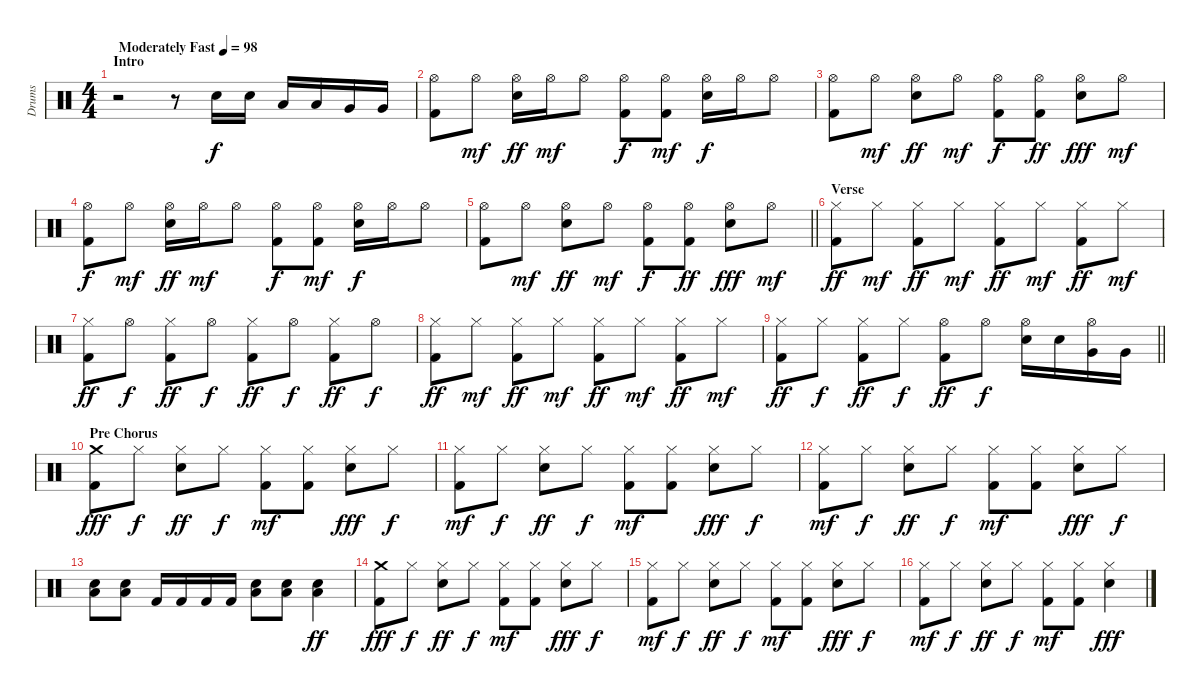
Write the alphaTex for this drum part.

\track ("Drums" "Drums") {instrument percussion}
\staff {score}
\articulation defaults
\ts (4 4)
\section ("" "Intro")
\tempo (98 "Moderately Fast")
\clef neutral
\ks c
r.2{dy f} r.8 "Electric Snare (hit)".16 "Electric Snare (hit)".16 "Low Tom (hit)".16 "Low Tom (hit)".16 "Very Low Tom (hit)".16 "Very Low Tom (hit)".16 |
("Hi-Hat (open)" "Kick (hit) 2").8 "Hi-Hat (open)".8{dy mf} ("Hi-Hat (open)" "Electric Snare (hit)").16{dy ff} "Hi-Hat (open)".16{dy mf} "Hi-Hat (open)".8 ("Hi-Hat (open)" "Kick (hit) 2").8{dy f} ("Hi-Hat (open)" "Kick (hit) 2").8{dy mf} ("Hi-Hat (open)" "Electric Snare (hit)").16{dy f} "Hi-Hat (open)".16 "Hi-Hat (open)".8 |
("Hi-Hat (open)" "Kick (hit) 2").8 "Hi-Hat (open)".8{dy mf} ("Hi-Hat (open)" "Electric Snare (hit)").8{dy ff} "Hi-Hat (open)".8{dy mf} ("Hi-Hat (open)" "Kick (hit) 2").8{dy f} ("Hi-Hat (open)" "Kick (hit) 2").8{dy ff} ("Hi-Hat (open)" "Electric Snare (hit)").8{dy fff} "Hi-Hat (open)".8{dy mf} |
("Hi-Hat (open)" "Kick (hit) 2").8{dy f} "Hi-Hat (open)".8{dy mf} ("Hi-Hat (open)" "Electric Snare (hit)").16{dy ff} "Hi-Hat (open)".16{dy mf} "Hi-Hat (open)".8 ("Hi-Hat (open)" "Kick (hit) 2").8{dy f} ("Hi-Hat (open)" "Kick (hit) 2").8{dy mf} ("Hi-Hat (open)" "Electric Snare (hit)").16{dy f} "Hi-Hat (open)".16 "Hi-Hat (open)".8 |
\barLineRight lightlight
("Hi-Hat (open)" "Kick (hit) 2").8 "Hi-Hat (open)".8{dy mf} ("Hi-Hat (open)" "Electric Snare (hit)").8{dy ff} "Hi-Hat (open)".8{dy mf} ("Hi-Hat (open)" "Kick (hit) 2").8{dy f} ("Hi-Hat (open)" "Kick (hit) 2").8{dy ff} ("Hi-Hat (open)" "Electric Snare (hit)").8{dy fff} "Hi-Hat (open)".8{dy mf} |
\section ("" "Verse")
("Hi-Hat (closed)" "Kick (hit) 2").8{dy ff} "Hi-Hat (closed)".8{dy mf} ("Hi-Hat (closed)" "Kick (hit) 2").8{dy ff} "Hi-Hat (closed)".8{dy mf} ("Hi-Hat (closed)" "Kick (hit) 2").8{dy ff} "Hi-Hat (closed)".8{dy mf} ("Hi-Hat (closed)" "Kick (hit) 2").8{dy ff} "Hi-Hat (closed)".8{dy mf} |
("Hi-Hat (closed)" "Kick (hit) 2").8{dy ff} "Hi-Hat (open)".8{dy f} ("Hi-Hat (closed)" "Kick (hit) 2").8{dy ff} "Hi-Hat (open)".8{dy f} ("Hi-Hat (closed)" "Kick (hit) 2").8{dy ff} "Hi-Hat (open)".8{dy f} ("Hi-Hat (closed)" "Kick (hit) 2").8{dy ff} "Hi-Hat (open)".8{dy f} |
("Hi-Hat (closed)" "Kick (hit) 2").8{dy ff} "Hi-Hat (closed)".8{dy mf} ("Hi-Hat (closed)" "Kick (hit) 2").8{dy ff} "Hi-Hat (closed)".8{dy mf} ("Hi-Hat (closed)" "Kick (hit) 2").8{dy ff} "Hi-Hat (closed)".8{dy mf} ("Hi-Hat (closed)" "Kick (hit) 2").8{dy ff} "Hi-Hat (closed)".8{dy mf} |
\barLineRight lightlight
("Hi-Hat (closed)" "Kick (hit) 2").8{dy ff} "Hi-Hat (closed)".8{dy f} ("Hi-Hat (closed)" "Kick (hit) 2").8{dy ff} "Hi-Hat (closed)".8{dy f} ("Hi-Hat (open)" "Kick (hit) 2").8{dy ff} "Hi-Hat (open)".8{dy f} ("Hi-Hat (open)" "Electric Snare (hit)").16 "Electric Snare (hit)".16 ("Hi-Hat (open)" "Very Low Tom (hit)").16 "Very Low Tom (hit)".16 |
\section ("" "Pre Chorus")
("Crash medium (hit)" "Kick (hit) 2").8{dy fff} "Hi-Hat (closed)".8{dy f} ("Hi-Hat (closed)" "Electric Snare (hit)").8{dy ff} "Hi-Hat (closed)".8{dy f} ("Hi-Hat (closed)" "Kick (hit) 2").8{dy mf} ("Hi-Hat (closed)" "Kick (hit) 2").8 ("Hi-Hat (closed)" "Electric Snare (hit)").8{dy fff} "Hi-Hat (closed)".8{dy f} |
("Hi-Hat (closed)" "Kick (hit) 2").8{dy mf} "Hi-Hat (closed)".8{dy f} ("Hi-Hat (closed)" "Electric Snare (hit)").8{dy ff} "Hi-Hat (closed)".8{dy f} ("Hi-Hat (closed)" "Kick (hit) 2").8{dy mf} ("Hi-Hat (closed)" "Kick (hit) 2").8 ("Hi-Hat (closed)" "Electric Snare (hit)").8{dy fff} "Hi-Hat (closed)".8{dy f} |
("Hi-Hat (closed)" "Kick (hit) 2").8{dy mf} "Hi-Hat (closed)".8{dy f} ("Hi-Hat (closed)" "Electric Snare (hit)").8{dy ff} "Hi-Hat (closed)".8{dy f} ("Hi-Hat (closed)" "Kick (hit) 2").8{dy mf} ("Hi-Hat (closed)" "Kick (hit) 2").8 ("Hi-Hat (closed)" "Electric Snare (hit)").8{dy fff} "Hi-Hat (closed)".8{dy f} |
("Electric Snare (hit)" "Low Floor Tom (hit)").8 ("Electric Snare (hit)" "Low Floor Tom (hit)").8 "Kick (hit) 2".16 "Kick (hit) 2".16 "Kick (hit) 2".16 "Kick (hit) 2".16 ("Electric Snare (hit)" "Low Floor Tom (hit)").8 ("Electric Snare (hit)" "Low Floor Tom (hit)").8 ("Electric Snare (hit)" "Low Floor Tom (hit)").4{dy ff} |
("Crash medium (hit)" "Kick (hit) 2").8{dy fff} "Hi-Hat (closed)".8{dy f} ("Hi-Hat (closed)" "Electric Snare (hit)").8{dy ff} "Hi-Hat (closed)".8{dy f} ("Hi-Hat (closed)" "Kick (hit) 2").8{dy mf} ("Hi-Hat (closed)" "Kick (hit) 2").8 ("Hi-Hat (closed)" "Electric Snare (hit)").8{dy fff} "Hi-Hat (closed)".8{dy f} |
("Hi-Hat (closed)" "Kick (hit) 2").8{dy mf} "Hi-Hat (closed)".8{dy f} ("Hi-Hat (closed)" "Electric Snare (hit)").8{dy ff} "Hi-Hat (closed)".8{dy f} ("Hi-Hat (closed)" "Kick (hit) 2").8{dy mf} ("Hi-Hat (closed)" "Kick (hit) 2").8 ("Hi-Hat (closed)" "Electric Snare (hit)").8{dy fff} "Hi-Hat (closed)".8{dy f} |
("Hi-Hat (closed)" "Kick (hit) 2").8{dy mf} "Hi-Hat (closed)".8{dy f} ("Hi-Hat (closed)" "Electric Snare (hit)").8{dy ff} "Hi-Hat (closed)".8{dy f} ("Hi-Hat (closed)" "Kick (hit) 2").8{dy mf} ("Hi-Hat (closed)" "Kick (hit) 2").8 ("Hi-Hat (closed)" "Electric Snare (hit)").4{dy fff}
